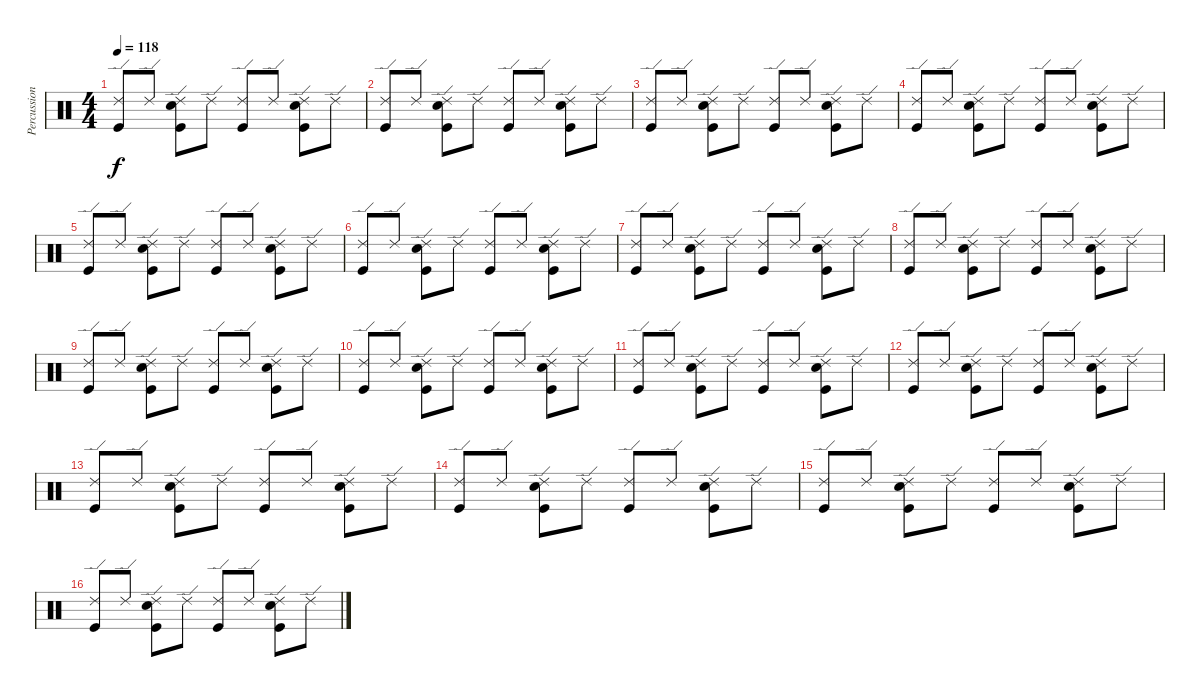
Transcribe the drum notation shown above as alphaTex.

\track ("Percussion (RSE)" "Percussion") {instrument percussion}
\staff {score}
\articulation defaults
\ts (4 4)
\tempo 118
\clef neutral
\ks c
("Ride (edge) 2" "Kick (hit)").8{dy f} "Ride (edge) 2".8 ("Ride (edge) 2" "Snare (hit) 2" "Kick (hit)").8 "Ride (edge) 2".8 ("Ride (edge) 2" "Kick (hit)").8 "Ride (edge) 2".8 ("Ride (edge) 2" "Snare (hit) 2" "Kick (hit)").8 "Ride (edge) 2".8 |
("Ride (edge) 2" "Kick (hit)").8 "Ride (edge) 2".8 ("Ride (edge) 2" "Snare (hit) 2" "Kick (hit)").8 "Ride (edge) 2".8 ("Ride (edge) 2" "Kick (hit)").8 "Ride (edge) 2".8 ("Ride (edge) 2" "Snare (hit) 2" "Kick (hit)").8 "Ride (edge) 2".8 |
("Ride (edge) 2" "Kick (hit)").8 "Ride (edge) 2".8 ("Ride (edge) 2" "Snare (hit) 2" "Kick (hit)").8 "Ride (edge) 2".8 ("Ride (edge) 2" "Kick (hit)").8 "Ride (edge) 2".8 ("Ride (edge) 2" "Snare (hit) 2" "Kick (hit)").8 "Ride (edge) 2".8 |
("Ride (edge) 2" "Kick (hit)").8 "Ride (edge) 2".8 ("Ride (edge) 2" "Snare (hit) 2" "Kick (hit)").8 "Ride (edge) 2".8 ("Ride (edge) 2" "Kick (hit)").8 "Ride (edge) 2".8 ("Ride (edge) 2" "Snare (hit) 2" "Kick (hit)").8 "Ride (edge) 2".8 |
("Ride (edge) 2" "Kick (hit)").8 "Ride (edge) 2".8 ("Ride (edge) 2" "Snare (hit) 2" "Kick (hit)").8 "Ride (edge) 2".8 ("Ride (edge) 2" "Kick (hit)").8 "Ride (edge) 2".8 ("Ride (edge) 2" "Snare (hit) 2" "Kick (hit)").8 "Ride (edge) 2".8 |
("Ride (edge) 2" "Kick (hit)").8 "Ride (edge) 2".8 ("Ride (edge) 2" "Snare (hit) 2" "Kick (hit)").8 "Ride (edge) 2".8 ("Ride (edge) 2" "Kick (hit)").8 "Ride (edge) 2".8 ("Ride (edge) 2" "Snare (hit) 2" "Kick (hit)").8 "Ride (edge) 2".8 |
("Ride (edge) 2" "Kick (hit)").8 "Ride (edge) 2".8 ("Ride (edge) 2" "Snare (hit) 2" "Kick (hit)").8 "Ride (edge) 2".8 ("Ride (edge) 2" "Kick (hit)").8 "Ride (edge) 2".8 ("Ride (edge) 2" "Snare (hit) 2" "Kick (hit)").8 "Ride (edge) 2".8 |
("Ride (edge) 2" "Kick (hit)").8 "Ride (edge) 2".8 ("Ride (edge) 2" "Snare (hit) 2" "Kick (hit)").8 "Ride (edge) 2".8 ("Ride (edge) 2" "Kick (hit)").8 "Ride (edge) 2".8 ("Ride (edge) 2" "Snare (hit) 2" "Kick (hit)").8 "Ride (edge) 2".8 |
("Ride (edge) 2" "Kick (hit)").8 "Ride (edge) 2".8 ("Ride (edge) 2" "Snare (hit) 2" "Kick (hit)").8 "Ride (edge) 2".8 ("Ride (edge) 2" "Kick (hit)").8 "Ride (edge) 2".8 ("Ride (edge) 2" "Snare (hit) 2" "Kick (hit)").8 "Ride (edge) 2".8 |
("Ride (edge) 2" "Kick (hit)").8 "Ride (edge) 2".8 ("Ride (edge) 2" "Snare (hit) 2" "Kick (hit)").8 "Ride (edge) 2".8 ("Ride (edge) 2" "Kick (hit)").8 "Ride (edge) 2".8 ("Ride (edge) 2" "Snare (hit) 2" "Kick (hit)").8 "Ride (edge) 2".8 |
("Ride (edge) 2" "Kick (hit)").8 "Ride (edge) 2".8 ("Ride (edge) 2" "Snare (hit) 2" "Kick (hit)").8 "Ride (edge) 2".8 ("Ride (edge) 2" "Kick (hit)").8 "Ride (edge) 2".8 ("Ride (edge) 2" "Snare (hit) 2" "Kick (hit)").8 "Ride (edge) 2".8 |
("Ride (edge) 2" "Kick (hit)").8 "Ride (edge) 2".8 ("Ride (edge) 2" "Snare (hit) 2" "Kick (hit)").8 "Ride (edge) 2".8 ("Ride (edge) 2" "Kick (hit)").8 "Ride (edge) 2".8 ("Ride (edge) 2" "Snare (hit) 2" "Kick (hit)").8 "Ride (edge) 2".8 |
("Ride (edge) 2" "Kick (hit)").8 "Ride (edge) 2".8 ("Ride (edge) 2" "Snare (hit) 2" "Kick (hit)").8 "Ride (edge) 2".8 ("Ride (edge) 2" "Kick (hit)").8 "Ride (edge) 2".8 ("Ride (edge) 2" "Snare (hit) 2" "Kick (hit)").8 "Ride (edge) 2".8 |
("Ride (edge) 2" "Kick (hit)").8 "Ride (edge) 2".8 ("Ride (edge) 2" "Snare (hit) 2" "Kick (hit)").8 "Ride (edge) 2".8 ("Ride (edge) 2" "Kick (hit)").8 "Ride (edge) 2".8 ("Ride (edge) 2" "Snare (hit) 2" "Kick (hit)").8 "Ride (edge) 2".8 |
("Ride (edge) 2" "Kick (hit)").8 "Ride (edge) 2".8 ("Ride (edge) 2" "Snare (hit) 2" "Kick (hit)").8 "Ride (edge) 2".8 ("Ride (edge) 2" "Kick (hit)").8 "Ride (edge) 2".8 ("Ride (edge) 2" "Snare (hit) 2" "Kick (hit)").8 "Ride (edge) 2".8 |
("Ride (edge) 2" "Kick (hit)").8 "Ride (edge) 2".8 ("Ride (edge) 2" "Snare (hit) 2" "Kick (hit)").8 "Ride (edge) 2".8 ("Ride (edge) 2" "Kick (hit)").8 "Ride (edge) 2".8 ("Ride (edge) 2" "Snare (hit) 2" "Kick (hit)").8 "Ride (edge) 2".8
